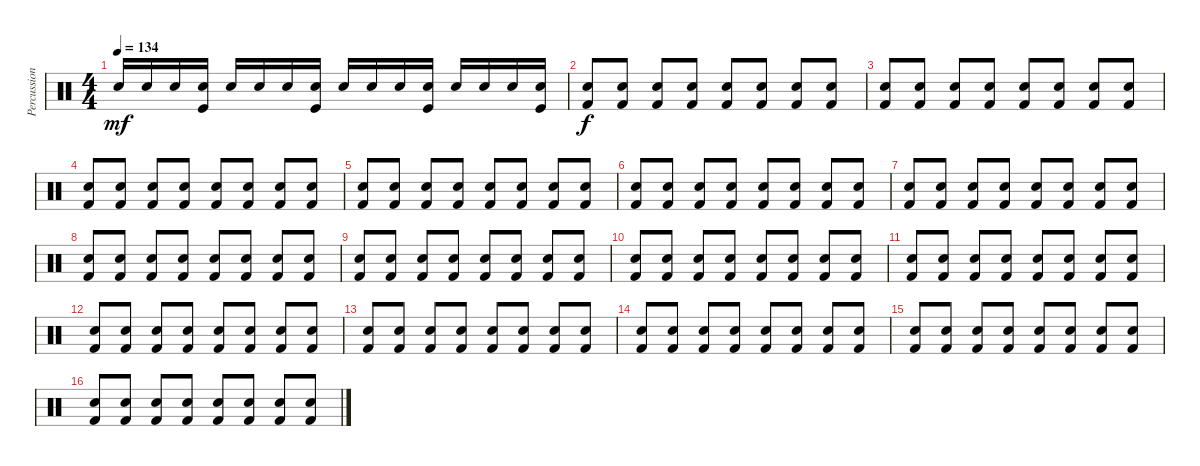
\track ("Percussion" "Percussion") {instrument percussion}
\staff {score}
\articulation defaults
\ts (4 4)
\tempo 134
\clef neutral
\ks c "Snare (hit) 2".16{dy mf} "Snare (hit) 2".16 "Snare (hit) 2".16
("Snare (hit) 2" "Kick (hit)").16 "Snare (hit) 2".16 "Snare (hit) 2".16 "Snare (hit) 2".16 ("Snare (hit) 2" "Kick (hit)").16 "Snare (hit) 2".16 "Snare (hit) 2".16 "Snare (hit) 2".16 ("Snare (hit) 2" "Kick (hit)").16 "Snare (hit) 2".16 "Snare (hit) 2".16 "Snare (hit) 2".16 ("Snare (hit) 2" "Kick (hit)").16 |
("Snare (hit) 2" "Kick (hit) 2").8{dy f} ("Snare (hit) 2" "Kick (hit) 2").8 ("Snare (hit) 2" "Kick (hit) 2").8 ("Snare (hit) 2" "Kick (hit) 2").8 ("Snare (hit) 2" "Kick (hit) 2").8 ("Snare (hit) 2" "Kick (hit) 2").8 ("Snare (hit) 2" "Kick (hit) 2").8 ("Snare (hit) 2" "Kick (hit) 2").8 |
("Snare (hit) 2" "Kick (hit) 2").8 ("Snare (hit) 2" "Kick (hit) 2").8 ("Snare (hit) 2" "Kick (hit) 2").8 ("Snare (hit) 2" "Kick (hit) 2").8 ("Snare (hit) 2" "Kick (hit) 2").8 ("Snare (hit) 2" "Kick (hit) 2").8 ("Snare (hit) 2" "Kick (hit) 2").8 ("Snare (hit) 2" "Kick (hit) 2").8 |
("Snare (hit) 2" "Kick (hit) 2").8 ("Snare (hit) 2" "Kick (hit) 2").8 ("Snare (hit) 2" "Kick (hit) 2").8 ("Snare (hit) 2" "Kick (hit) 2").8 ("Snare (hit) 2" "Kick (hit) 2").8 ("Snare (hit) 2" "Kick (hit) 2").8 ("Snare (hit) 2" "Kick (hit) 2").8 ("Snare (hit) 2" "Kick (hit) 2").8 |
("Snare (hit) 2" "Kick (hit) 2").8 ("Snare (hit) 2" "Kick (hit) 2").8 ("Snare (hit) 2" "Kick (hit) 2").8 ("Snare (hit) 2" "Kick (hit) 2").8 ("Snare (hit) 2" "Kick (hit) 2").8 ("Snare (hit) 2" "Kick (hit) 2").8 ("Snare (hit) 2" "Kick (hit) 2").8 ("Snare (hit) 2" "Kick (hit) 2").8 |
("Snare (hit) 2" "Kick (hit) 2").8 ("Snare (hit) 2" "Kick (hit) 2").8 ("Snare (hit) 2" "Kick (hit) 2").8 ("Snare (hit) 2" "Kick (hit) 2").8 ("Snare (hit) 2" "Kick (hit) 2").8 ("Snare (hit) 2" "Kick (hit) 2").8 ("Snare (hit) 2" "Kick (hit) 2").8 ("Snare (hit) 2" "Kick (hit) 2").8 |
("Snare (hit) 2" "Kick (hit) 2").8 ("Snare (hit) 2" "Kick (hit) 2").8 ("Snare (hit) 2" "Kick (hit) 2").8 ("Snare (hit) 2" "Kick (hit) 2").8 ("Snare (hit) 2" "Kick (hit) 2").8 ("Snare (hit) 2" "Kick (hit) 2").8 ("Snare (hit) 2" "Kick (hit) 2").8 ("Snare (hit) 2" "Kick (hit) 2").8 |
("Snare (hit) 2" "Kick (hit) 2").8 ("Snare (hit) 2" "Kick (hit) 2").8 ("Snare (hit) 2" "Kick (hit) 2").8 ("Snare (hit) 2" "Kick (hit) 2").8 ("Snare (hit) 2" "Kick (hit) 2").8 ("Snare (hit) 2" "Kick (hit) 2").8 ("Snare (hit) 2" "Kick (hit) 2").8 ("Snare (hit) 2" "Kick (hit) 2").8 |
("Snare (hit) 2" "Kick (hit) 2").8 ("Snare (hit) 2" "Kick (hit) 2").8 ("Snare (hit) 2" "Kick (hit) 2").8 ("Snare (hit) 2" "Kick (hit) 2").8 ("Snare (hit) 2" "Kick (hit) 2").8 ("Snare (hit) 2" "Kick (hit) 2").8 ("Snare (hit) 2" "Kick (hit) 2").8 ("Snare (hit) 2" "Kick (hit) 2").8 |
("Snare (hit) 2" "Kick (hit) 2").8 ("Snare (hit) 2" "Kick (hit) 2").8 ("Snare (hit) 2" "Kick (hit) 2").8 ("Snare (hit) 2" "Kick (hit) 2").8 ("Snare (hit) 2" "Kick (hit) 2").8 ("Snare (hit) 2" "Kick (hit) 2").8 ("Snare (hit) 2" "Kick (hit) 2").8 ("Snare (hit) 2" "Kick (hit) 2").8 |
("Snare (hit) 2" "Kick (hit) 2").8 ("Snare (hit) 2" "Kick (hit) 2").8 ("Snare (hit) 2" "Kick (hit) 2").8 ("Snare (hit) 2" "Kick (hit) 2").8 ("Snare (hit) 2" "Kick (hit) 2").8 ("Snare (hit) 2" "Kick (hit) 2").8 ("Snare (hit) 2" "Kick (hit) 2").8 ("Snare (hit) 2" "Kick (hit) 2").8 |
("Snare (hit) 2" "Kick (hit) 2").8 ("Snare (hit) 2" "Kick (hit) 2").8 ("Snare (hit) 2" "Kick (hit) 2").8 ("Snare (hit) 2" "Kick (hit) 2").8 ("Snare (hit) 2" "Kick (hit) 2").8 ("Snare (hit) 2" "Kick (hit) 2").8 ("Snare (hit) 2" "Kick (hit) 2").8 ("Snare (hit) 2" "Kick (hit) 2").8 |
("Snare (hit) 2" "Kick (hit) 2").8 ("Snare (hit) 2" "Kick (hit) 2").8 ("Snare (hit) 2" "Kick (hit) 2").8 ("Snare (hit) 2" "Kick (hit) 2").8 ("Snare (hit) 2" "Kick (hit) 2").8 ("Snare (hit) 2" "Kick (hit) 2").8 ("Snare (hit) 2" "Kick (hit) 2").8 ("Snare (hit) 2" "Kick (hit) 2").8 |
("Snare (hit) 2" "Kick (hit) 2").8 ("Snare (hit) 2" "Kick (hit) 2").8 ("Snare (hit) 2" "Kick (hit) 2").8 ("Snare (hit) 2" "Kick (hit) 2").8 ("Snare (hit) 2" "Kick (hit) 2").8 ("Snare (hit) 2" "Kick (hit) 2").8 ("Snare (hit) 2" "Kick (hit) 2").8 ("Snare (hit) 2" "Kick (hit) 2").8 |
("Snare (hit) 2" "Kick (hit) 2").8 ("Snare (hit) 2" "Kick (hit) 2").8 ("Snare (hit) 2" "Kick (hit) 2").8 ("Snare (hit) 2" "Kick (hit) 2").8 ("Snare (hit) 2" "Kick (hit) 2").8 ("Snare (hit) 2" "Kick (hit) 2").8 ("Snare (hit) 2" "Kick (hit) 2").8 ("Snare (hit) 2" "Kick (hit) 2").8 |
("Snare (hit) 2" "Kick (hit) 2").8 ("Snare (hit) 2" "Kick (hit) 2").8 ("Snare (hit) 2" "Kick (hit) 2").8 ("Snare (hit) 2" "Kick (hit) 2").8 ("Snare (hit) 2" "Kick (hit) 2").8 ("Snare (hit) 2" "Kick (hit) 2").8 ("Snare (hit) 2" "Kick (hit) 2").8 ("Snare (hit) 2" "Kick (hit) 2").8
